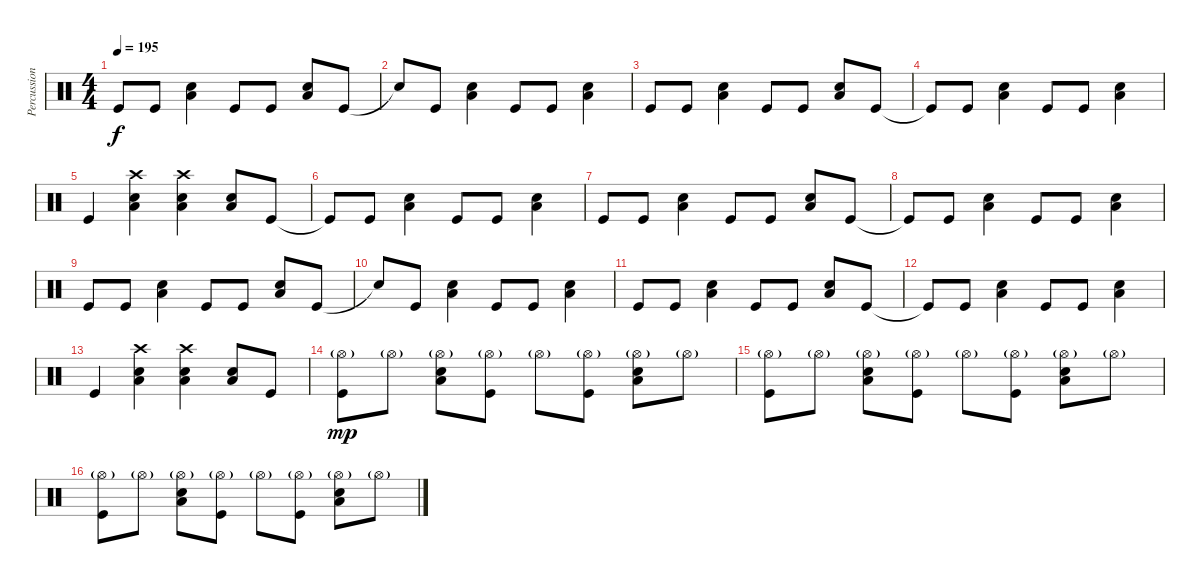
\track ("Percussion" "Percussion") {instrument percussion}
\staff {score}
\articulation defaults
\ts (4 4)
\tempo 195
\clef neutral
\ks c "Kick (hit)".8{dy f} "Kick (hit)".8
("Low Tom (hit)" "Snare (hit) 2").4 "Kick (hit)".8 "Kick (hit)".8 ("Low Tom (hit)" "Snare (hit) 2").8 "Kick (hit)".8 |
"Snare (hit)"{t}.8 "Kick (hit)".8 ("Low Tom (hit)" "Snare (hit) 2").4 "Kick (hit)".8 "Kick (hit)".8 ("Low Tom (hit)" "Snare (hit) 2").4 |
"Kick (hit)".8 "Kick (hit)".8 ("Low Tom (hit)" "Snare (hit) 2").4 "Kick (hit)".8 "Kick (hit)".8 ("Low Tom (hit)" "Snare (hit) 2").8 "Kick (hit)".8 |
"Kick (hit)"{t}.8 "Kick (hit)".8 ("Low Tom (hit)" "Snare (hit) 2").4 "Kick (hit)".8 "Kick (hit)".8 ("Low Tom (hit)" "Snare (hit) 2").4 |
"Kick (hit)".4 ("Crash high (hit)" "Low Tom (hit)" "Snare (hit) 2").4 ("Crash high (hit)" "Low Tom (hit)" "Snare (hit) 2").4 ("Low Tom (hit)" "Snare (hit) 2").8 "Kick (hit)".8 |
"Kick (hit)"{t}.8 "Kick (hit)".8 ("Low Tom (hit)" "Snare (hit) 2").4 "Kick (hit)".8 "Kick (hit)".8 ("Low Tom (hit)" "Snare (hit) 2").4 |
"Kick (hit)".8 "Kick (hit)".8 ("Low Tom (hit)" "Snare (hit) 2").4 "Kick (hit)".8 "Kick (hit)".8 ("Low Tom (hit)" "Snare (hit) 2").8 "Kick (hit)".8 |
"Kick (hit)"{t}.8 "Kick (hit)".8 ("Low Tom (hit)" "Snare (hit) 2").4 "Kick (hit)".8 "Kick (hit)".8 ("Low Tom (hit)" "Snare (hit) 2").4 |
"Kick (hit)".8 "Kick (hit)".8 ("Low Tom (hit)" "Snare (hit) 2").4 "Kick (hit)".8 "Kick (hit)".8 ("Low Tom (hit)" "Snare (hit) 2").8 "Kick (hit)".8 |
"Snare (hit)"{t}.8 "Kick (hit)".8 ("Low Tom (hit)" "Snare (hit) 2").4 "Kick (hit)".8 "Kick (hit)".8 ("Low Tom (hit)" "Snare (hit) 2").4 |
"Kick (hit)".8 "Kick (hit)".8 ("Low Tom (hit)" "Snare (hit) 2").4 "Kick (hit)".8 "Kick (hit)".8 ("Low Tom (hit)" "Snare (hit) 2").8 "Kick (hit)".8 |
"Kick (hit)"{t}.8 "Kick (hit)".8 ("Low Tom (hit)" "Snare (hit) 2").4 "Kick (hit)".8 "Kick (hit)".8 ("Low Tom (hit)" "Snare (hit) 2").4 |
"Kick (hit)".4 ("Crash high (hit)" "Low Tom (hit)" "Snare (hit) 2").4 ("Crash high (hit)" "Low Tom (hit)" "Snare (hit) 2").4 ("Low Tom (hit)" "Snare (hit) 2").8 "Kick (hit)".8 |
("Hi-Hat (open)"{g} "Kick (hit)").8{dy mp} "Hi-Hat (open)"{g}.8 ("Hi-Hat (open)"{g} "Low Tom (hit)" "Snare (hit) 2").8 ("Hi-Hat (open)"{g} "Kick (hit)").8 "Hi-Hat (open)"{g}.8 ("Hi-Hat (open)"{g} "Kick (hit)").8 ("Hi-Hat (open)"{g} "Low Tom (hit)" "Snare (hit) 2").8 "Hi-Hat (open)"{g}.8 |
("Hi-Hat (open)"{g} "Kick (hit)").8 "Hi-Hat (open)"{g}.8 ("Hi-Hat (open)"{g} "Low Tom (hit)" "Snare (hit) 2").8 ("Hi-Hat (open)"{g} "Kick (hit)").8 "Hi-Hat (open)"{g}.8 ("Hi-Hat (open)"{g} "Kick (hit)").8 ("Hi-Hat (open)"{g} "Low Tom (hit)" "Snare (hit) 2").8 "Hi-Hat (open)"{g}.8 |
("Hi-Hat (open)"{g} "Kick (hit)").8 "Hi-Hat (open)"{g}.8 ("Hi-Hat (open)"{g} "Low Tom (hit)" "Snare (hit) 2").8 ("Hi-Hat (open)"{g} "Kick (hit)").8 "Hi-Hat (open)"{g}.8 ("Hi-Hat (open)"{g} "Kick (hit)").8 ("Hi-Hat (open)"{g} "Low Tom (hit)" "Snare (hit) 2").8 "Hi-Hat (open)"{g}.8
